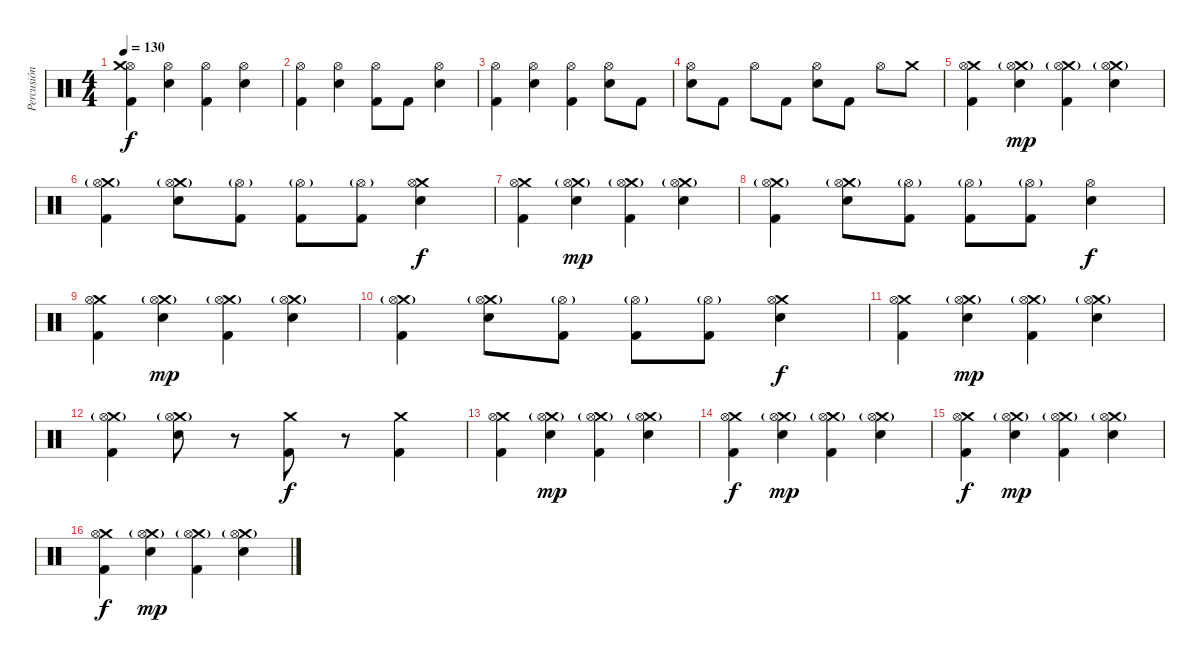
\track ("Percusión" "Percusión") {instrument percussion}
\staff {score}
\articulation defaults
\ts (4 4)
\tempo 130
\clef neutral
\ks c
("Kick (hit) 2" "Hi-Hat (open)" "Crash medium (hit)").4{dy f} ("Snare (hit) 2" "Hi-Hat (open)").4 ("Kick (hit) 2" "Hi-Hat (open)").4 ("Snare (hit) 2" "Hi-Hat (open)").4 |
("Kick (hit) 2" "Hi-Hat (open)").4 ("Snare (hit) 2" "Hi-Hat (open)").4 ("Kick (hit) 2" "Hi-Hat (open)").8 "Kick (hit) 2".8 ("Snare (hit) 2" "Hi-Hat (open)").4 |
("Kick (hit) 2" "Hi-Hat (open)").4 ("Snare (hit) 2" "Hi-Hat (open)").4 ("Kick (hit) 2" "Hi-Hat (open)").4 ("Snare (hit) 2" "Hi-Hat (open)").8 "Kick (hit) 2".8 |
("Snare (hit) 2" "Hi-Hat (open)").8 "Kick (hit) 2".8 "Hi-Hat (open)".8 "Kick (hit) 2".8 ("Snare (hit) 2" "Hi-Hat (open)").8 "Kick (hit) 2".8 "Hi-Hat (open)".8 "Crash medium (hit)".8 |
("Crash medium (hit)" "Kick (hit) 2" "Hi-Hat (open)").4 ("Snare (hit) 2" "Crash medium (hit)"{g} "Hi-Hat (open)").4{dy mp} ("Kick (hit) 2" "Crash medium (hit)"{g} "Hi-Hat (open)").4 ("Snare (hit) 2" "Crash medium (hit)"{g} "Hi-Hat (open)").4 |
("Kick (hit) 2" "Crash medium (hit)"{g} "Hi-Hat (open)").4 ("Snare (hit) 2" "Crash medium (hit)"{g} "Hi-Hat (open)").8 ("Kick (hit) 2" "Hi-Hat (open)"{g}).8 ("Kick (hit) 2" "Hi-Hat (open)"{g}).8 ("Kick (hit) 2" "Hi-Hat (open)"{g}).8 ("Snare (hit) 2" "Crash medium (hit)" "Hi-Hat (open)").4{dy f} |
("Crash medium (hit)" "Kick (hit) 2" "Hi-Hat (open)").4 ("Snare (hit) 2" "Crash medium (hit)"{g} "Hi-Hat (open)").4{dy mp} ("Kick (hit) 2" "Crash medium (hit)"{g} "Hi-Hat (open)").4 ("Snare (hit) 2" "Crash medium (hit)"{g} "Hi-Hat (open)").4 |
("Kick (hit) 2" "Crash medium (hit)"{g} "Hi-Hat (open)").4 ("Snare (hit) 2" "Crash medium (hit)"{g} "Hi-Hat (open)").8 ("Kick (hit) 2" "Hi-Hat (open)"{g}).8 ("Kick (hit) 2" "Hi-Hat (open)"{g}).8 ("Kick (hit) 2" "Hi-Hat (open)"{g}).8 ("Snare (hit) 2" "Hi-Hat (open)").4{dy f} |
("Crash medium (hit)" "Kick (hit) 2" "Hi-Hat (open)").4 ("Snare (hit) 2" "Crash medium (hit)"{g} "Hi-Hat (open)").4{dy mp} ("Kick (hit) 2" "Crash medium (hit)"{g} "Hi-Hat (open)").4 ("Snare (hit) 2" "Crash medium (hit)"{g} "Hi-Hat (open)").4 |
("Kick (hit) 2" "Crash medium (hit)"{g} "Hi-Hat (open)").4 ("Snare (hit) 2" "Crash medium (hit)"{g} "Hi-Hat (open)").8 ("Kick (hit) 2" "Hi-Hat (open)"{g}).8 ("Kick (hit) 2" "Hi-Hat (open)"{g}).8 ("Kick (hit) 2" "Hi-Hat (open)"{g}).8 ("Snare (hit) 2" "Crash medium (hit)" "Hi-Hat (open)").4{dy f} |
("Crash medium (hit)" "Kick (hit) 2" "Hi-Hat (open)").4 ("Snare (hit) 2" "Crash medium (hit)"{g} "Hi-Hat (open)").4{dy mp} ("Kick (hit) 2" "Crash medium (hit)"{g} "Hi-Hat (open)").4 ("Snare (hit) 2" "Crash medium (hit)"{g} "Hi-Hat (open)").4 |
("Kick (hit) 2" "Crash medium (hit)"{g} "Hi-Hat (open)").4 ("Snare (hit) 2" "Crash medium (hit)"{g} "Hi-Hat (open)").8 r.8 ("Kick (hit) 2" "Crash medium (hit)").8{dy f} r.8 ("Kick (hit) 2" "Crash medium (hit)").4 |
("Crash medium (hit)" "Kick (hit) 2" "Hi-Hat (open)").4 ("Snare (hit) 2" "Crash medium (hit)"{g} "Hi-Hat (open)").4{dy mp} ("Kick (hit) 2" "Crash medium (hit)"{g} "Hi-Hat (open)").4 ("Snare (hit) 2" "Crash medium (hit)"{g} "Hi-Hat (open)").4 |
("Crash medium (hit)" "Kick (hit) 2" "Hi-Hat (open)").4{dy f} ("Snare (hit) 2" "Crash medium (hit)"{g} "Hi-Hat (open)").4{dy mp} ("Kick (hit) 2" "Crash medium (hit)"{g} "Hi-Hat (open)").4 ("Snare (hit) 2" "Crash medium (hit)"{g} "Hi-Hat (open)").4 |
("Crash medium (hit)" "Kick (hit) 2" "Hi-Hat (open)").4{dy f} ("Snare (hit) 2" "Crash medium (hit)"{g} "Hi-Hat (open)").4{dy mp} ("Kick (hit) 2" "Crash medium (hit)"{g} "Hi-Hat (open)").4 ("Snare (hit) 2" "Crash medium (hit)"{g} "Hi-Hat (open)").4 |
("Crash medium (hit)" "Kick (hit) 2" "Hi-Hat (open)").4{dy f} ("Snare (hit) 2" "Crash medium (hit)"{g} "Hi-Hat (open)").4{dy mp} ("Kick (hit) 2" "Crash medium (hit)"{g} "Hi-Hat (open)").4 ("Snare (hit) 2" "Crash medium (hit)"{g} "Hi-Hat (open)").4
